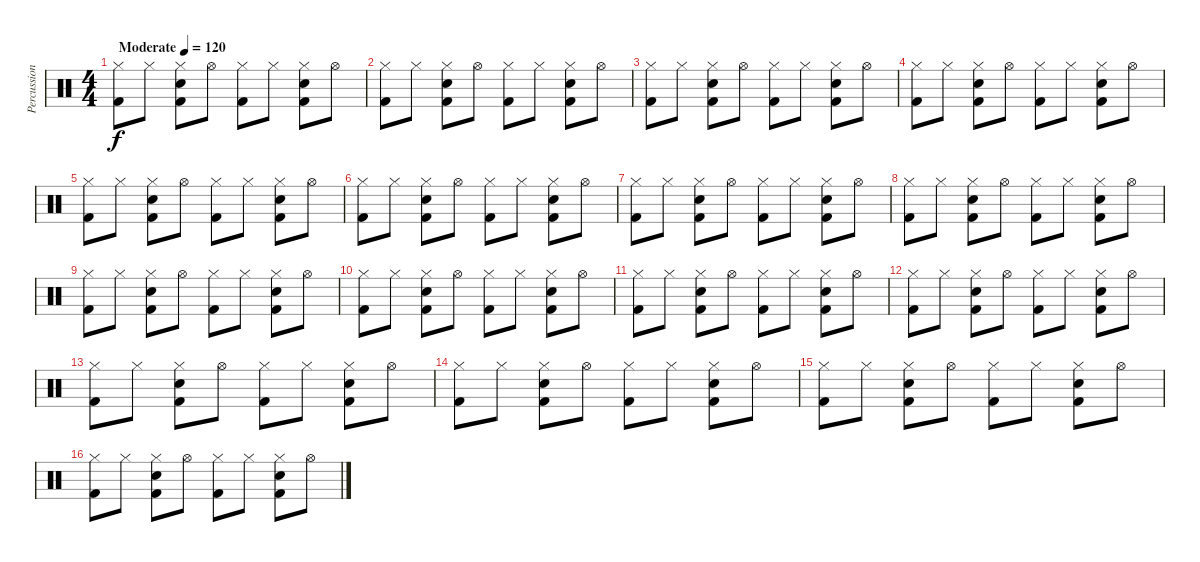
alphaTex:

\track ("Percussion" "Percussion") {instrument percussion}
\staff {score}
\articulation defaults
\ts (4 4)
\tempo (120 "Moderate")
\clef neutral
\ks c
("Hi-Hat (closed)" "Kick (hit) 2").8{dy f} "Hi-Hat (closed)".8 ("Hi-Hat (closed)" "Snare (hit) 2" "Kick (hit) 2").8 "Hi-Hat (open)".8 ("Hi-Hat (closed)" "Kick (hit) 2").8 "Hi-Hat (closed)".8 ("Hi-Hat (closed)" "Snare (hit) 2" "Kick (hit) 2").8 "Hi-Hat (open)".8 |
("Hi-Hat (closed)" "Kick (hit) 2").8 "Hi-Hat (closed)".8 ("Hi-Hat (closed)" "Snare (hit) 2" "Kick (hit) 2").8 "Hi-Hat (open)".8 ("Hi-Hat (closed)" "Kick (hit) 2").8 "Hi-Hat (closed)".8 ("Hi-Hat (closed)" "Snare (hit) 2" "Kick (hit) 2").8 "Hi-Hat (open)".8 |
("Hi-Hat (closed)" "Kick (hit) 2").8 "Hi-Hat (closed)".8 ("Hi-Hat (closed)" "Snare (hit) 2" "Kick (hit) 2").8 "Hi-Hat (open)".8 ("Hi-Hat (closed)" "Kick (hit) 2").8 "Hi-Hat (closed)".8 ("Hi-Hat (closed)" "Snare (hit) 2" "Kick (hit) 2").8 "Hi-Hat (open)".8 |
("Hi-Hat (closed)" "Kick (hit) 2").8 "Hi-Hat (closed)".8 ("Hi-Hat (closed)" "Snare (hit) 2" "Kick (hit) 2").8 "Hi-Hat (open)".8 ("Hi-Hat (closed)" "Kick (hit) 2").8 "Hi-Hat (closed)".8 ("Hi-Hat (closed)" "Snare (hit) 2" "Kick (hit) 2").8 "Hi-Hat (open)".8 |
("Hi-Hat (closed)" "Kick (hit) 2").8 "Hi-Hat (closed)".8 ("Hi-Hat (closed)" "Snare (hit) 2" "Kick (hit) 2").8 "Hi-Hat (open)".8 ("Hi-Hat (closed)" "Kick (hit) 2").8 "Hi-Hat (closed)".8 ("Hi-Hat (closed)" "Snare (hit) 2" "Kick (hit) 2").8 "Hi-Hat (open)".8 |
("Hi-Hat (closed)" "Kick (hit) 2").8 "Hi-Hat (closed)".8 ("Hi-Hat (closed)" "Snare (hit) 2" "Kick (hit) 2").8 "Hi-Hat (open)".8 ("Hi-Hat (closed)" "Kick (hit) 2").8 "Hi-Hat (closed)".8 ("Hi-Hat (closed)" "Snare (hit) 2" "Kick (hit) 2").8 "Hi-Hat (open)".8 |
("Hi-Hat (closed)" "Kick (hit) 2").8 "Hi-Hat (closed)".8 ("Hi-Hat (closed)" "Snare (hit) 2" "Kick (hit) 2").8 "Hi-Hat (open)".8 ("Hi-Hat (closed)" "Kick (hit) 2").8 "Hi-Hat (closed)".8 ("Hi-Hat (closed)" "Snare (hit) 2" "Kick (hit) 2").8 "Hi-Hat (open)".8 |
("Hi-Hat (closed)" "Kick (hit) 2").8 "Hi-Hat (closed)".8 ("Hi-Hat (closed)" "Snare (hit) 2" "Kick (hit) 2").8 "Hi-Hat (open)".8 ("Hi-Hat (closed)" "Kick (hit) 2").8 "Hi-Hat (closed)".8 ("Hi-Hat (closed)" "Snare (hit) 2" "Kick (hit) 2").8 "Hi-Hat (open)".8 |
("Hi-Hat (closed)" "Kick (hit) 2").8 "Hi-Hat (closed)".8 ("Hi-Hat (closed)" "Snare (hit) 2" "Kick (hit) 2").8 "Hi-Hat (open)".8 ("Hi-Hat (closed)" "Kick (hit) 2").8 "Hi-Hat (closed)".8 ("Hi-Hat (closed)" "Snare (hit) 2" "Kick (hit) 2").8 "Hi-Hat (open)".8 |
("Hi-Hat (closed)" "Kick (hit) 2").8 "Hi-Hat (closed)".8 ("Hi-Hat (closed)" "Snare (hit) 2" "Kick (hit) 2").8 "Hi-Hat (open)".8 ("Hi-Hat (closed)" "Kick (hit) 2").8 "Hi-Hat (closed)".8 ("Hi-Hat (closed)" "Snare (hit) 2" "Kick (hit) 2").8 "Hi-Hat (open)".8 |
("Hi-Hat (closed)" "Kick (hit) 2").8 "Hi-Hat (closed)".8 ("Hi-Hat (closed)" "Snare (hit) 2" "Kick (hit) 2").8 "Hi-Hat (open)".8 ("Hi-Hat (closed)" "Kick (hit) 2").8 "Hi-Hat (closed)".8 ("Hi-Hat (closed)" "Snare (hit) 2" "Kick (hit) 2").8 "Hi-Hat (open)".8 |
("Hi-Hat (closed)" "Kick (hit) 2").8 "Hi-Hat (closed)".8 ("Hi-Hat (closed)" "Snare (hit) 2" "Kick (hit) 2").8 "Hi-Hat (open)".8 ("Hi-Hat (closed)" "Kick (hit) 2").8 "Hi-Hat (closed)".8 ("Hi-Hat (closed)" "Snare (hit) 2" "Kick (hit) 2").8 "Hi-Hat (open)".8 |
("Hi-Hat (closed)" "Kick (hit) 2").8 "Hi-Hat (closed)".8 ("Hi-Hat (closed)" "Snare (hit) 2" "Kick (hit) 2").8 "Hi-Hat (open)".8 ("Hi-Hat (closed)" "Kick (hit) 2").8 "Hi-Hat (closed)".8 ("Hi-Hat (closed)" "Snare (hit) 2" "Kick (hit) 2").8 "Hi-Hat (open)".8 |
("Hi-Hat (closed)" "Kick (hit) 2").8 "Hi-Hat (closed)".8 ("Hi-Hat (closed)" "Snare (hit) 2" "Kick (hit) 2").8 "Hi-Hat (open)".8 ("Hi-Hat (closed)" "Kick (hit) 2").8 "Hi-Hat (closed)".8 ("Hi-Hat (closed)" "Snare (hit) 2" "Kick (hit) 2").8 "Hi-Hat (open)".8 |
("Hi-Hat (closed)" "Kick (hit) 2").8 "Hi-Hat (closed)".8 ("Hi-Hat (closed)" "Snare (hit) 2" "Kick (hit) 2").8 "Hi-Hat (open)".8 ("Hi-Hat (closed)" "Kick (hit) 2").8 "Hi-Hat (closed)".8 ("Hi-Hat (closed)" "Snare (hit) 2" "Kick (hit) 2").8 "Hi-Hat (open)".8 |
("Hi-Hat (closed)" "Kick (hit) 2").8 "Hi-Hat (closed)".8 ("Hi-Hat (closed)" "Snare (hit) 2" "Kick (hit) 2").8 "Hi-Hat (open)".8 ("Hi-Hat (closed)" "Kick (hit) 2").8 "Hi-Hat (closed)".8 ("Hi-Hat (closed)" "Snare (hit) 2" "Kick (hit) 2").8 "Hi-Hat (open)".8
